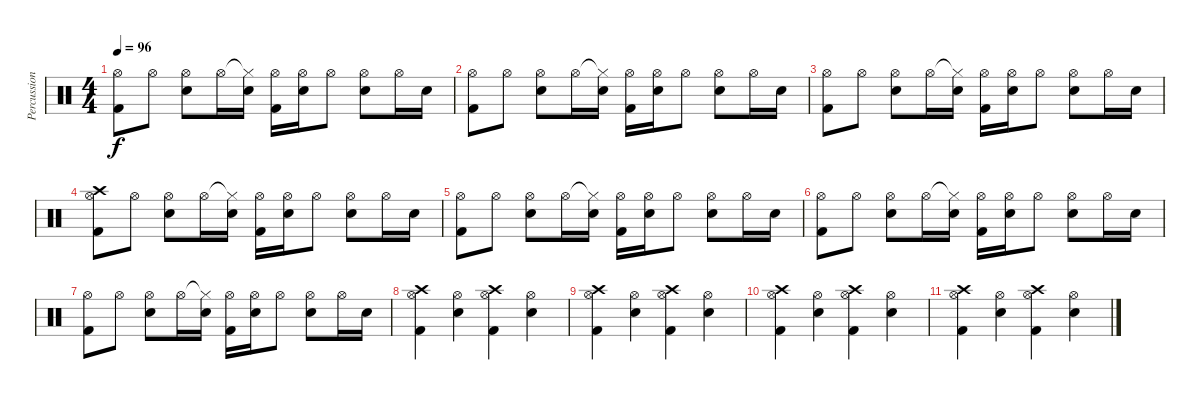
\track ("Percussion" "Percussion") {instrument percussion}
\staff {score}
\articulation defaults
\ts (4 4)
\tempo 96
\clef neutral
\ks c
("Hi-Hat (open)" "Kick (hit) 2").8{dy f} "Hi-Hat (open)".8 ("Hi-Hat (open)" "Snare (hit) 2").8 "Hi-Hat (open)".16 ("Hi-Hat (closed)"{t} "Snare (hit) 2").16 ("Hi-Hat (open)" "Kick (hit) 2").16 ("Hi-Hat (open)" "Snare (hit) 2").16 "Hi-Hat (open)".8 ("Hi-Hat (open)" "Snare (hit) 2").8 "Hi-Hat (open)".16 "Snare (hit) 2".16 |
("Hi-Hat (open)" "Kick (hit) 2").8 "Hi-Hat (open)".8 ("Hi-Hat (open)" "Snare (hit) 2").8 "Hi-Hat (open)".16 ("Hi-Hat (closed)"{t} "Snare (hit) 2").16 ("Hi-Hat (open)" "Kick (hit) 2").16 ("Hi-Hat (open)" "Snare (hit) 2").16 "Hi-Hat (open)".8 ("Hi-Hat (open)" "Snare (hit) 2").8 "Hi-Hat (open)".16 "Snare (hit) 2".16 |
("Hi-Hat (open)" "Kick (hit) 2").8 "Hi-Hat (open)".8 ("Hi-Hat (open)" "Snare (hit) 2").8 "Hi-Hat (open)".16 ("Hi-Hat (closed)"{t} "Snare (hit) 2").16 ("Hi-Hat (open)" "Kick (hit) 2").16 ("Hi-Hat (open)" "Snare (hit) 2").16 "Hi-Hat (open)".8 ("Hi-Hat (open)" "Snare (hit) 2").8 "Hi-Hat (open)".16 "Snare (hit) 2".16 |
("Crash high (hit)" "Hi-Hat (open)" "Kick (hit) 2").8 "Hi-Hat (open)".8 ("Hi-Hat (open)" "Snare (hit) 2").8 "Hi-Hat (open)".16 ("Hi-Hat (closed)"{t} "Snare (hit) 2").16 ("Hi-Hat (open)" "Kick (hit) 2").16 ("Hi-Hat (open)" "Snare (hit) 2").16 "Hi-Hat (open)".8 ("Hi-Hat (open)" "Snare (hit) 2").8 "Hi-Hat (open)".16 "Snare (hit) 2".16 |
("Hi-Hat (open)" "Kick (hit) 2").8 "Hi-Hat (open)".8 ("Hi-Hat (open)" "Snare (hit) 2").8 "Hi-Hat (open)".16 ("Hi-Hat (closed)"{t} "Snare (hit) 2").16 ("Hi-Hat (open)" "Kick (hit) 2").16 ("Hi-Hat (open)" "Snare (hit) 2").16 "Hi-Hat (open)".8 ("Hi-Hat (open)" "Snare (hit) 2").8 "Hi-Hat (open)".16 "Snare (hit) 2".16 |
("Hi-Hat (open)" "Kick (hit) 2").8 "Hi-Hat (open)".8 ("Hi-Hat (open)" "Snare (hit) 2").8 "Hi-Hat (open)".16 ("Hi-Hat (closed)"{t} "Snare (hit) 2").16 ("Hi-Hat (open)" "Kick (hit) 2").16 ("Hi-Hat (open)" "Snare (hit) 2").16 "Hi-Hat (open)".8 ("Hi-Hat (open)" "Snare (hit) 2").8 "Hi-Hat (open)".16 "Snare (hit) 2".16 |
("Hi-Hat (open)" "Kick (hit) 2").8 "Hi-Hat (open)".8 ("Hi-Hat (open)" "Snare (hit) 2").8 "Hi-Hat (open)".16 ("Hi-Hat (closed)"{t} "Snare (hit) 2").16 ("Hi-Hat (open)" "Kick (hit) 2").16 ("Hi-Hat (open)" "Snare (hit) 2").16 "Hi-Hat (open)".8 ("Hi-Hat (open)" "Snare (hit) 2").8 "Hi-Hat (open)".16 "Snare (hit) 2".16 |
("Crash high (hit)" "Hi-Hat (open)" "Kick (hit) 2").4 ("Hi-Hat (open)" "Snare (hit) 2").4{volume 15} ("Crash high (hit)" "Hi-Hat (open)" "Kick (hit) 2").4{volume 14} ("Hi-Hat (open)" "Snare (hit) 2").4{volume 13} |
("Crash high (hit)" "Hi-Hat (open)" "Kick (hit) 2").4{volume 12} ("Hi-Hat (open)" "Snare (hit) 2").4{volume 11} ("Crash high (hit)" "Hi-Hat (open)" "Kick (hit) 2").4{volume 10} ("Hi-Hat (open)" "Snare (hit) 2").4{volume 9} |
("Crash high (hit)" "Hi-Hat (open)" "Kick (hit) 2").4{volume 8} ("Hi-Hat (open)" "Snare (hit) 2").4{volume 7} ("Crash high (hit)" "Hi-Hat (open)" "Kick (hit) 2").4{volume 6} ("Hi-Hat (open)" "Snare (hit) 2").4{volume 5} |
("Crash high (hit)" "Hi-Hat (open)" "Kick (hit) 2").4{volume 4} ("Hi-Hat (open)" "Snare (hit) 2").4{volume 3} ("Crash high (hit)" "Hi-Hat (open)" "Kick (hit) 2").4{volume 2} ("Hi-Hat (open)" "Snare (hit) 2").4{volume 1}
